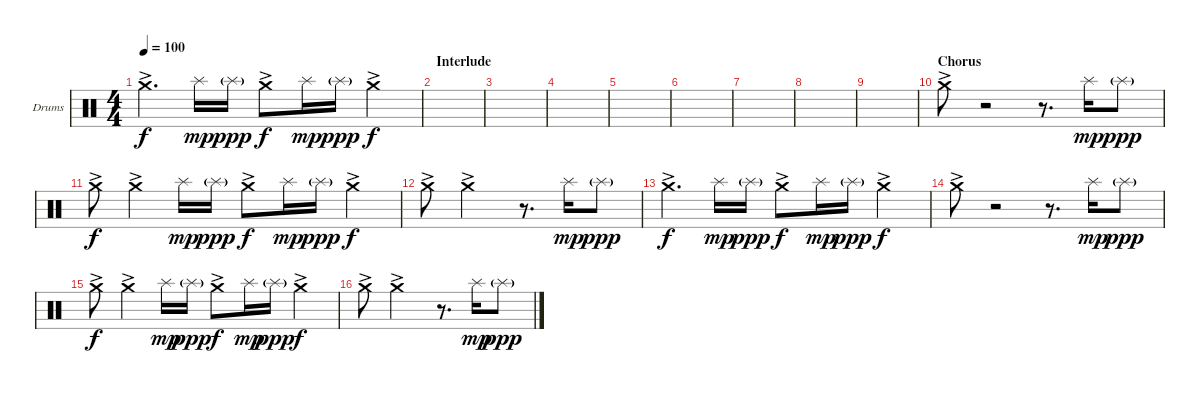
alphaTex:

\bracketExtendMode groupsimilarinstruments
\firstSystemTrackNameOrientation horizontal
\otherSystemsTrackNameOrientation horizontal
\track ("Cymbals left" "Drums") {instrument percussion}
\staff {score}
\articulation defaults
\ts (4 4)
\tempo 100
\clef neutral
\ks c "Crash medium (hit)"{ac}.4{d dy f} "Splash (hit)".16{dy mp} "Splash (hit)"{g}.16{dy ppp} "Crash medium (hit)"{ac}.8{dy f} "Splash (hit)".16{dy mp} "Splash (hit)"{g}.16{dy ppp} "Crash medium (hit)"{ac}.4{dy f}
|
\section ("" "Interlude")
|
|
|
|
|
|
|
|
\section ("" "Chorus")
"Crash medium (hit)"{ac}.8 r.2 r.8{d} "Splash (hit)".16{dy mp} "Splash (hit)"{g}.8{dy ppp} |
"Crash medium (hit)"{ac}.8{dy f} "Crash medium (hit)"{ac}.4 "Splash (hit)".16{dy mp} "Splash (hit)"{g}.16{dy ppp} "Crash medium (hit)"{ac}.8{dy f} "Splash (hit)".16{dy mp} "Splash (hit)"{g}.16{dy ppp} "Crash medium (hit)"{ac}.4{dy f} |
"Crash medium (hit)"{ac}.8 "Crash medium (hit)"{ac}.2 r.8{d} "Splash (hit)".16{dy mp} "Splash (hit)"{g}.8{dy ppp} |
"Crash medium (hit)"{ac}.4{d dy f} "Splash (hit)".16{dy mp} "Splash (hit)"{g}.16{dy ppp} "Crash medium (hit)"{ac}.8{dy f} "Splash (hit)".16{dy mp} "Splash (hit)"{g}.16{dy ppp} "Crash medium (hit)"{ac}.4{dy f} |
"Crash medium (hit)"{ac}.8 r.2 r.8{d} "Splash (hit)".16{dy mp} "Splash (hit)"{g}.8{dy ppp} |
"Crash medium (hit)"{ac}.8{dy f} "Crash medium (hit)"{ac}.4 "Splash (hit)".16{dy mp} "Splash (hit)"{g}.16{dy ppp} "Crash medium (hit)"{ac}.8{dy f} "Splash (hit)".16{dy mp} "Splash (hit)"{g}.16{dy ppp} "Crash medium (hit)"{ac}.4{dy f} |
"Crash medium (hit)"{ac}.8 "Crash medium (hit)"{ac}.2 r.8{d} "Splash (hit)".16{dy mp} "Splash (hit)"{g}.8{dy ppp}
